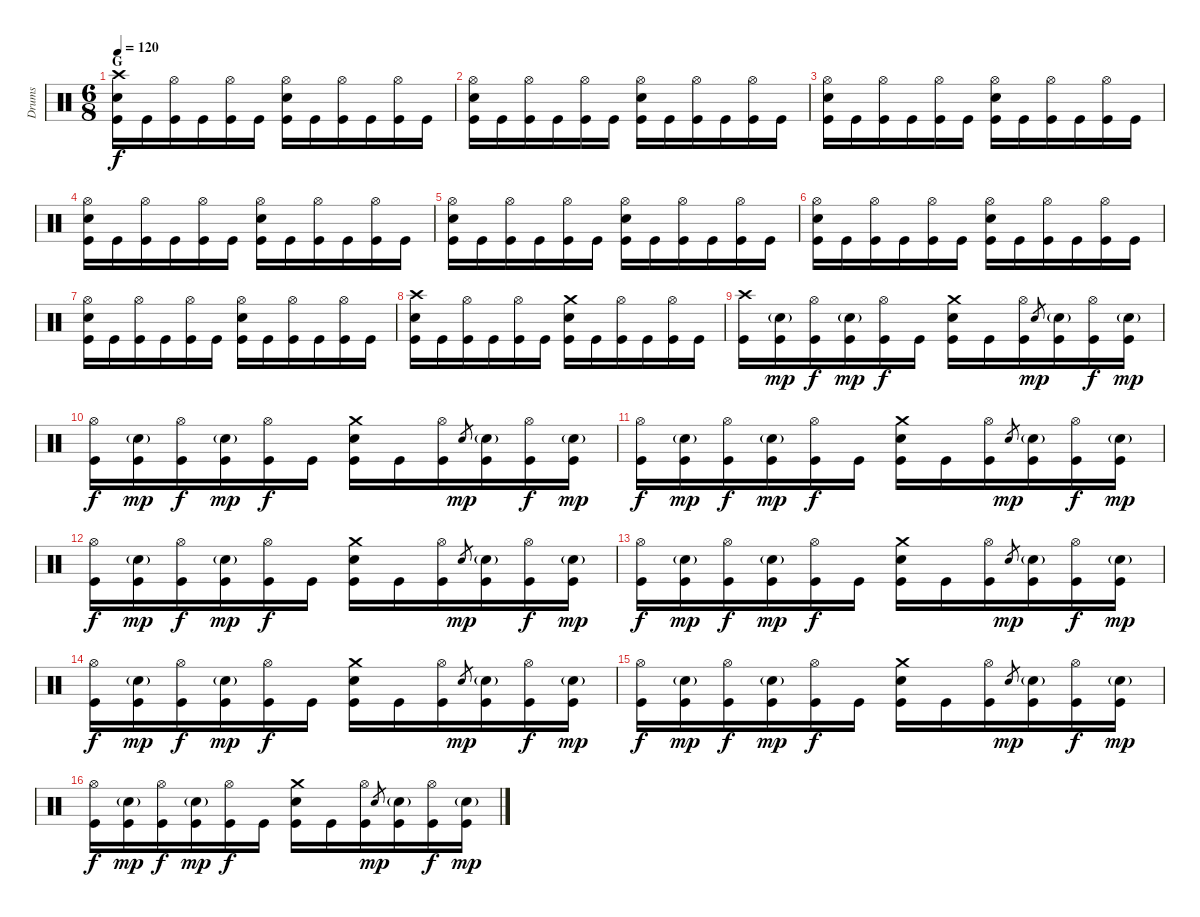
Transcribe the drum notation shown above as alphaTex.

\track ("Drums" "Drums") {instrument percussion}
\staff {score}
\articulation defaults
\ts (6 8)
\section ("" "G")
\tempo 120
\clef neutral
\ks c
("Kick (hit)" "Electric Snare (hit)" "Crash high (hit)").16{dy f} "Kick (hit)".16 ("Kick (hit)" "Hi-Hat (open)").16 "Kick (hit)".16 ("Kick (hit)" "Hi-Hat (open)").16 "Kick (hit)".16 ("Kick (hit)" "Electric Snare (hit)" "Hi-Hat (open)").16 "Kick (hit)".16 ("Kick (hit)" "Hi-Hat (open)").16 "Kick (hit)".16 ("Kick (hit)" "Hi-Hat (open)").16 "Kick (hit)".16 |
("Kick (hit)" "Electric Snare (hit)" "Hi-Hat (open)").16 "Kick (hit)".16 ("Kick (hit)" "Hi-Hat (open)").16 "Kick (hit)".16 ("Kick (hit)" "Hi-Hat (open)").16 "Kick (hit)".16 ("Kick (hit)" "Electric Snare (hit)" "Hi-Hat (open)").16 "Kick (hit)".16 ("Kick (hit)" "Hi-Hat (open)").16 "Kick (hit)".16 ("Kick (hit)" "Hi-Hat (open)").16 "Kick (hit)".16 |
("Kick (hit)" "Electric Snare (hit)" "Hi-Hat (open)").16 "Kick (hit)".16 ("Kick (hit)" "Hi-Hat (open)").16 "Kick (hit)".16 ("Kick (hit)" "Hi-Hat (open)").16 "Kick (hit)".16 ("Kick (hit)" "Electric Snare (hit)" "Hi-Hat (open)").16 "Kick (hit)".16 ("Kick (hit)" "Hi-Hat (open)").16 "Kick (hit)".16 ("Kick (hit)" "Hi-Hat (open)").16 "Kick (hit)".16 |
("Kick (hit)" "Electric Snare (hit)" "Hi-Hat (open)").16 "Kick (hit)".16 ("Kick (hit)" "Hi-Hat (open)").16 "Kick (hit)".16 ("Kick (hit)" "Hi-Hat (open)").16 "Kick (hit)".16 ("Kick (hit)" "Electric Snare (hit)" "Hi-Hat (open)").16 "Kick (hit)".16 ("Kick (hit)" "Hi-Hat (open)").16 "Kick (hit)".16 ("Kick (hit)" "Hi-Hat (open)").16 "Kick (hit)".16 |
("Kick (hit)" "Electric Snare (hit)" "Hi-Hat (open)").16 "Kick (hit)".16 ("Kick (hit)" "Hi-Hat (open)").16 "Kick (hit)".16 ("Kick (hit)" "Hi-Hat (open)").16 "Kick (hit)".16 ("Kick (hit)" "Electric Snare (hit)" "Hi-Hat (open)").16 "Kick (hit)".16 ("Kick (hit)" "Hi-Hat (open)").16 "Kick (hit)".16 ("Kick (hit)" "Hi-Hat (open)").16 "Kick (hit)".16 |
("Kick (hit)" "Electric Snare (hit)" "Hi-Hat (open)").16 "Kick (hit)".16 ("Kick (hit)" "Hi-Hat (open)").16 "Kick (hit)".16 ("Kick (hit)" "Hi-Hat (open)").16 "Kick (hit)".16 ("Kick (hit)" "Electric Snare (hit)" "Hi-Hat (open)").16 "Kick (hit)".16 ("Kick (hit)" "Hi-Hat (open)").16 "Kick (hit)".16 ("Kick (hit)" "Hi-Hat (open)").16 "Kick (hit)".16 |
("Kick (hit)" "Electric Snare (hit)" "Hi-Hat (open)").16 "Kick (hit)".16 ("Kick (hit)" "Hi-Hat (open)").16 "Kick (hit)".16 ("Kick (hit)" "Hi-Hat (open)").16 "Kick (hit)".16 ("Kick (hit)" "Electric Snare (hit)" "Hi-Hat (open)").16 "Kick (hit)".16 ("Kick (hit)" "Hi-Hat (open)").16 "Kick (hit)".16 ("Kick (hit)" "Hi-Hat (open)").16 "Kick (hit)".16 |
("Kick (hit)" "Electric Snare (hit)" "Crash high (hit)").16 "Kick (hit)".16 ("Kick (hit)" "Hi-Hat (open)").16 "Kick (hit)".16 ("Kick (hit)" "Hi-Hat (open)").16 "Kick (hit)".16 ("Kick (hit)" "Electric Snare (hit)" "Crash medium (hit)").16 "Kick (hit)".16 ("Kick (hit)" "Hi-Hat (open)").16 "Kick (hit)".16 ("Kick (hit)" "Hi-Hat (open)").16 "Kick (hit)".16 |
("Kick (hit)" "Crash high (hit)").16 ("Kick (hit)" "Electric Snare (hit)"{g}).16{dy mp} ("Kick (hit)" "Hi-Hat (open)").16{dy f} ("Kick (hit)" "Electric Snare (hit)"{g}).16{dy mp} ("Kick (hit)" "Hi-Hat (open)").16{dy f} "Kick (hit)".16 ("Kick (hit)" "Electric Snare (hit)" "Crash medium (hit)").16 "Kick (hit)".16 ("Kick (hit)" "Hi-Hat (open)").16 "Electric Snare (hit)".8{gr dy mp} ("Kick (hit)" "Electric Snare (hit)"{g}).16 ("Kick (hit)" "Hi-Hat (open)").16{dy f} ("Kick (hit)" "Electric Snare (hit)"{g}).16{dy mp} |
("Kick (hit)" "Hi-Hat (open)").16{dy f} ("Kick (hit)" "Electric Snare (hit)"{g}).16{dy mp} ("Kick (hit)" "Hi-Hat (open)").16{dy f} ("Kick (hit)" "Electric Snare (hit)"{g}).16{dy mp} ("Kick (hit)" "Hi-Hat (open)").16{dy f} "Kick (hit)".16 ("Kick (hit)" "Electric Snare (hit)" "Crash medium (hit)").16 "Kick (hit)".16 ("Kick (hit)" "Hi-Hat (open)").16 "Electric Snare (hit)".8{gr dy mp} ("Kick (hit)" "Electric Snare (hit)"{g}).16 ("Kick (hit)" "Hi-Hat (open)").16{dy f} ("Kick (hit)" "Electric Snare (hit)"{g}).16{dy mp} |
("Kick (hit)" "Hi-Hat (open)").16{dy f} ("Kick (hit)" "Electric Snare (hit)"{g}).16{dy mp} ("Kick (hit)" "Hi-Hat (open)").16{dy f} ("Kick (hit)" "Electric Snare (hit)"{g}).16{dy mp} ("Kick (hit)" "Hi-Hat (open)").16{dy f} "Kick (hit)".16 ("Kick (hit)" "Electric Snare (hit)" "Crash medium (hit)").16 "Kick (hit)".16 ("Kick (hit)" "Hi-Hat (open)").16 "Electric Snare (hit)".8{gr dy mp} ("Kick (hit)" "Electric Snare (hit)"{g}).16 ("Kick (hit)" "Hi-Hat (open)").16{dy f} ("Kick (hit)" "Electric Snare (hit)"{g}).16{dy mp} |
("Kick (hit)" "Hi-Hat (open)").16{dy f} ("Kick (hit)" "Electric Snare (hit)"{g}).16{dy mp} ("Kick (hit)" "Hi-Hat (open)").16{dy f} ("Kick (hit)" "Electric Snare (hit)"{g}).16{dy mp} ("Kick (hit)" "Hi-Hat (open)").16{dy f} "Kick (hit)".16 ("Kick (hit)" "Electric Snare (hit)" "Crash medium (hit)").16 "Kick (hit)".16 ("Kick (hit)" "Hi-Hat (open)").16 "Electric Snare (hit)".8{gr dy mp} ("Kick (hit)" "Electric Snare (hit)"{g}).16 ("Kick (hit)" "Hi-Hat (open)").16{dy f} ("Kick (hit)" "Electric Snare (hit)"{g}).16{dy mp} |
("Kick (hit)" "Hi-Hat (open)").16{dy f} ("Kick (hit)" "Electric Snare (hit)"{g}).16{dy mp} ("Kick (hit)" "Hi-Hat (open)").16{dy f} ("Kick (hit)" "Electric Snare (hit)"{g}).16{dy mp} ("Kick (hit)" "Hi-Hat (open)").16{dy f} "Kick (hit)".16 ("Kick (hit)" "Electric Snare (hit)" "Crash medium (hit)").16 "Kick (hit)".16 ("Kick (hit)" "Hi-Hat (open)").16 "Electric Snare (hit)".8{gr dy mp} ("Kick (hit)" "Electric Snare (hit)"{g}).16 ("Kick (hit)" "Hi-Hat (open)").16{dy f} ("Kick (hit)" "Electric Snare (hit)"{g}).16{dy mp} |
("Kick (hit)" "Hi-Hat (open)").16{dy f} ("Kick (hit)" "Electric Snare (hit)"{g}).16{dy mp} ("Kick (hit)" "Hi-Hat (open)").16{dy f} ("Kick (hit)" "Electric Snare (hit)"{g}).16{dy mp} ("Kick (hit)" "Hi-Hat (open)").16{dy f} "Kick (hit)".16 ("Kick (hit)" "Electric Snare (hit)" "Crash medium (hit)").16 "Kick (hit)".16 ("Kick (hit)" "Hi-Hat (open)").16 "Electric Snare (hit)".8{gr dy mp} ("Kick (hit)" "Electric Snare (hit)"{g}).16 ("Kick (hit)" "Hi-Hat (open)").16{dy f} ("Kick (hit)" "Electric Snare (hit)"{g}).16{dy mp} |
("Kick (hit)" "Hi-Hat (open)").16{dy f} ("Kick (hit)" "Electric Snare (hit)"{g}).16{dy mp} ("Kick (hit)" "Hi-Hat (open)").16{dy f} ("Kick (hit)" "Electric Snare (hit)"{g}).16{dy mp} ("Kick (hit)" "Hi-Hat (open)").16{dy f} "Kick (hit)".16 ("Kick (hit)" "Electric Snare (hit)" "Crash medium (hit)").16 "Kick (hit)".16 ("Kick (hit)" "Hi-Hat (open)").16 "Electric Snare (hit)".8{gr dy mp} ("Kick (hit)" "Electric Snare (hit)"{g}).16 ("Kick (hit)" "Hi-Hat (open)").16{dy f} ("Kick (hit)" "Electric Snare (hit)"{g}).16{dy mp} |
("Kick (hit)" "Hi-Hat (open)").16{dy f} ("Kick (hit)" "Electric Snare (hit)"{g}).16{dy mp} ("Kick (hit)" "Hi-Hat (open)").16{dy f} ("Kick (hit)" "Electric Snare (hit)"{g}).16{dy mp} ("Kick (hit)" "Hi-Hat (open)").16{dy f} "Kick (hit)".16 ("Kick (hit)" "Electric Snare (hit)" "Crash medium (hit)").16 "Kick (hit)".16 ("Kick (hit)" "Hi-Hat (open)").16 "Electric Snare (hit)".8{gr dy mp} ("Kick (hit)" "Electric Snare (hit)"{g}).16 ("Kick (hit)" "Hi-Hat (open)").16{dy f} ("Kick (hit)" "Electric Snare (hit)"{g}).16{dy mp}
